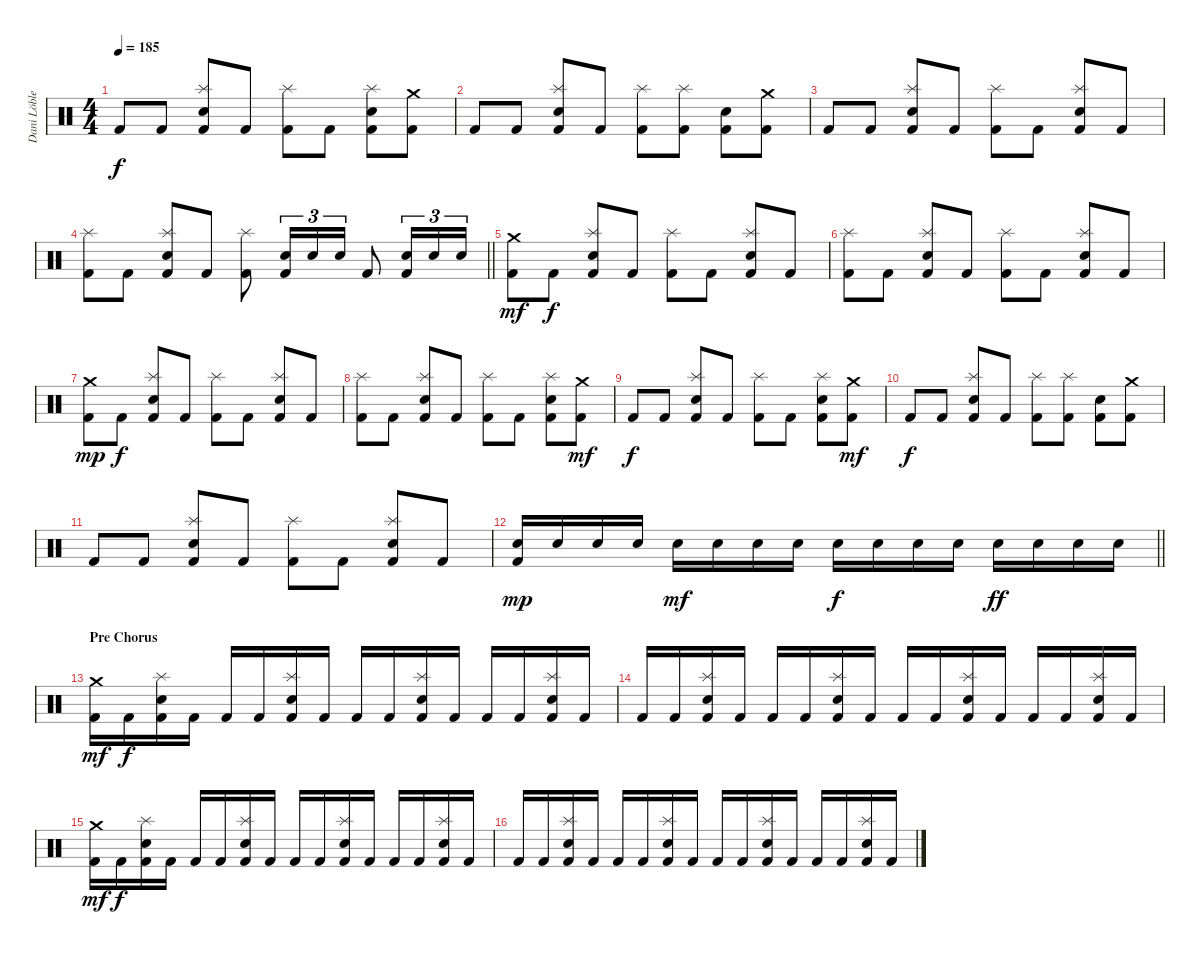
\track ("Dani Löble" "Dani Löble") {instrument percussion}
\staff {score}
\articulation defaults
\ts (4 4)
\tempo 185
\clef neutral
\ks c "Kick (hit) 2".8{dy f} "Kick (hit) 2".8
("Splash (hit)" "Electric Snare (hit)" "Kick (hit) 2").8 "Kick (hit) 2".8 ("Splash (hit)" "Kick (hit) 2").8 "Kick (hit) 2".8 ("Splash (hit)" "Electric Snare (hit)" "Kick (hit) 2").8 ("Crash medium (hit)" "Kick (hit) 2").8 |
"Kick (hit) 2".8 "Kick (hit) 2".8 ("Splash (hit)" "Electric Snare (hit)" "Kick (hit) 2").8 "Kick (hit) 2".8 ("Splash (hit)" "Kick (hit) 2").8 ("Splash (hit)" "Kick (hit) 2").8 ("Electric Snare (hit)" "Kick (hit) 2").8 ("Crash medium (hit)" "Kick (hit) 2").8 |
"Kick (hit) 2".8 "Kick (hit) 2".8 ("Splash (hit)" "Electric Snare (hit)" "Kick (hit) 2").8 "Kick (hit) 2".8 ("Splash (hit)" "Kick (hit) 2").8 "Kick (hit) 2".8 ("Splash (hit)" "Electric Snare (hit)" "Kick (hit) 2").8 "Kick (hit) 2".8 |
\barLineRight lightlight
("Splash (hit)" "Kick (hit) 2").8 "Kick (hit) 2".8 ("Splash (hit)" "Electric Snare (hit)" "Kick (hit) 2").8 "Kick (hit) 2".8 ("Splash (hit)" "Kick (hit) 2").8 ("Electric Snare (hit)" "Kick (hit) 2").16{tu (3 2)} "Electric Snare (hit)".16{tu (3 2)} "Electric Snare (hit)".16{tu (3 2)} "Kick (hit) 2".8 ("Electric Snare (hit)" "Kick (hit) 2").16{tu (3 2)} "Electric Snare (hit)".16{tu (3 2)} "Electric Snare (hit)".16{tu (3 2)} |
("Crash medium (hit)" "Kick (hit) 2").8{dy mf} "Kick (hit) 2".8{dy f} ("Splash (hit)" "Electric Snare (hit)" "Kick (hit) 2").8 "Kick (hit) 2".8 ("Splash (hit)" "Kick (hit) 2").8 "Kick (hit) 2".8 ("Splash (hit)" "Electric Snare (hit)" "Kick (hit) 2").8 "Kick (hit) 2".8 |
("Splash (hit)" "Kick (hit) 2").8 "Kick (hit) 2".8 ("Splash (hit)" "Electric Snare (hit)" "Kick (hit) 2").8 "Kick (hit) 2".8 ("Splash (hit)" "Kick (hit) 2").8 "Kick (hit) 2".8 ("Splash (hit)" "Electric Snare (hit)" "Kick (hit) 2").8 "Kick (hit) 2".8 |
("Crash medium (hit)" "Kick (hit) 2").8{dy mp} "Kick (hit) 2".8{dy f} ("Splash (hit)" "Electric Snare (hit)" "Kick (hit) 2").8 "Kick (hit) 2".8 ("Splash (hit)" "Kick (hit) 2").8 "Kick (hit) 2".8 ("Splash (hit)" "Electric Snare (hit)" "Kick (hit) 2").8 "Kick (hit) 2".8 |
("Splash (hit)" "Kick (hit) 2").8 "Kick (hit) 2".8 ("Splash (hit)" "Electric Snare (hit)" "Kick (hit) 2").8 "Kick (hit) 2".8 ("Splash (hit)" "Kick (hit) 2").8 "Kick (hit) 2".8 ("Splash (hit)" "Electric Snare (hit)" "Kick (hit) 2").8 ("Crash medium (hit)" "Kick (hit) 2").8{dy mf} |
"Kick (hit) 2".8{dy f} "Kick (hit) 2".8 ("Splash (hit)" "Electric Snare (hit)" "Kick (hit) 2").8 "Kick (hit) 2".8 ("Splash (hit)" "Kick (hit) 2").8 "Kick (hit) 2".8 ("Splash (hit)" "Electric Snare (hit)" "Kick (hit) 2").8 ("Crash medium (hit)" "Kick (hit) 2").8{dy mf} |
"Kick (hit) 2".8{dy f} "Kick (hit) 2".8 ("Splash (hit)" "Electric Snare (hit)" "Kick (hit) 2").8 "Kick (hit) 2".8 ("Splash (hit)" "Kick (hit) 2").8 ("Splash (hit)" "Kick (hit) 2").8 ("Electric Snare (hit)" "Kick (hit) 2").8 ("Crash medium (hit)" "Kick (hit) 2").8 |
"Kick (hit) 2".8 "Kick (hit) 2".8 ("Splash (hit)" "Electric Snare (hit)" "Kick (hit) 2").8 "Kick (hit) 2".8 ("Splash (hit)" "Kick (hit) 2").8 "Kick (hit) 2".8 ("Splash (hit)" "Electric Snare (hit)" "Kick (hit) 2").8 "Kick (hit) 2".8 |
\barLineRight lightlight
("Electric Snare (hit)" "Kick (hit) 2").16{dy mp} "Electric Snare (hit)".16 "Electric Snare (hit)".16 "Electric Snare (hit)".16 "Electric Snare (hit)".16{dy mf} "Electric Snare (hit)".16 "Electric Snare (hit)".16 "Electric Snare (hit)".16 "Electric Snare (hit)".16{dy f} "Electric Snare (hit)".16 "Electric Snare (hit)".16 "Electric Snare (hit)".16 "Electric Snare (hit)".16{dy ff} "Electric Snare (hit)".16 "Electric Snare (hit)".16 "Electric Snare (hit)".16 |
\section ("" "Pre Chorus")
("Crash medium (hit)" "Kick (hit) 2").16{dy mf} "Kick (hit) 2".16{dy f} ("Splash (hit)" "Electric Snare (hit)" "Kick (hit) 2").16 "Kick (hit) 2".16 "Kick (hit) 2".16 "Kick (hit) 2".16 ("Splash (hit)" "Electric Snare (hit)" "Kick (hit) 2").16 "Kick (hit) 2".16 "Kick (hit) 2".16 "Kick (hit) 2".16 ("Splash (hit)" "Electric Snare (hit)" "Kick (hit) 2").16 "Kick (hit) 2".16 "Kick (hit) 2".16 "Kick (hit) 2".16 ("Splash (hit)" "Electric Snare (hit)" "Kick (hit) 2").16 "Kick (hit) 2".16 |
"Kick (hit) 2".16 "Kick (hit) 2".16 ("Splash (hit)" "Electric Snare (hit)" "Kick (hit) 2").16 "Kick (hit) 2".16 "Kick (hit) 2".16 "Kick (hit) 2".16 ("Splash (hit)" "Electric Snare (hit)" "Kick (hit) 2").16 "Kick (hit) 2".16 "Kick (hit) 2".16 "Kick (hit) 2".16 ("Splash (hit)" "Electric Snare (hit)" "Kick (hit) 2").16 "Kick (hit) 2".16 "Kick (hit) 2".16 "Kick (hit) 2".16 ("Splash (hit)" "Electric Snare (hit)" "Kick (hit) 2").16 "Kick (hit) 2".16 |
("Crash medium (hit)" "Kick (hit) 2").16{dy mf} "Kick (hit) 2".16{dy f} ("Splash (hit)" "Electric Snare (hit)" "Kick (hit) 2").16 "Kick (hit) 2".16 "Kick (hit) 2".16 "Kick (hit) 2".16 ("Splash (hit)" "Electric Snare (hit)" "Kick (hit) 2").16 "Kick (hit) 2".16 "Kick (hit) 2".16 "Kick (hit) 2".16 ("Splash (hit)" "Electric Snare (hit)" "Kick (hit) 2").16 "Kick (hit) 2".16 "Kick (hit) 2".16 "Kick (hit) 2".16 ("Splash (hit)" "Electric Snare (hit)" "Kick (hit) 2").16 "Kick (hit) 2".16 |
"Kick (hit) 2".16 "Kick (hit) 2".16 ("Splash (hit)" "Electric Snare (hit)" "Kick (hit) 2").16 "Kick (hit) 2".16 "Kick (hit) 2".16 "Kick (hit) 2".16 ("Splash (hit)" "Electric Snare (hit)" "Kick (hit) 2").16 "Kick (hit) 2".16 "Kick (hit) 2".16 "Kick (hit) 2".16 ("Splash (hit)" "Electric Snare (hit)" "Kick (hit) 2").16 "Kick (hit) 2".16 "Kick (hit) 2".16 "Kick (hit) 2".16 ("Splash (hit)" "Electric Snare (hit)" "Kick (hit) 2").16 "Kick (hit) 2".16
